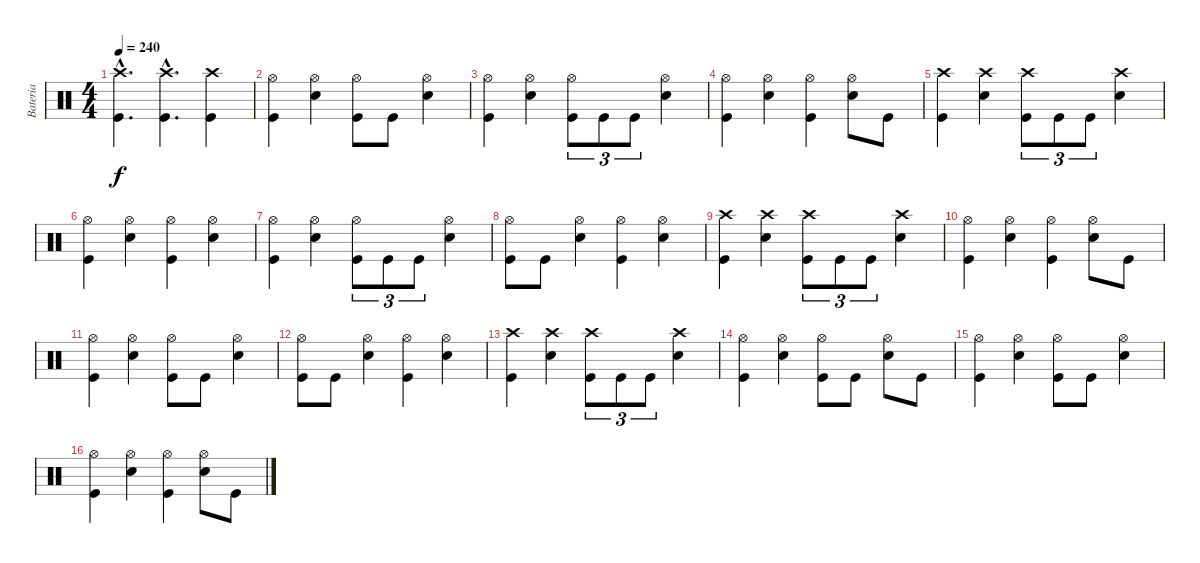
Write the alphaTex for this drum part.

\track ("Bateria" "Bateria") {instrument percussion}
\staff {score}
\articulation defaults
\ts (4 4)
\tempo 240
\clef neutral
\ks c
("Kick (hit)"{hac} "Crash high (hit)"{hac}).4{d dy f} ("Kick (hit)"{hac} "Crash high (hit)"{hac}).4{d} ("Kick (hit)" "Crash high (hit)").4 |
("Kick (hit)" "Hi-Hat (open)").4 ("Electric Snare (hit)" "Hi-Hat (open)").4 ("Kick (hit)" "Hi-Hat (open)").8 "Kick (hit)".8 ("Electric Snare (hit)" "Hi-Hat (open)").4 |
("Kick (hit)" "Hi-Hat (open)").4 ("Electric Snare (hit)" "Hi-Hat (open)").4 ("Kick (hit)" "Hi-Hat (open)").8{tu (3 2)} "Kick (hit)".8{tu (3 2)} "Kick (hit)".8{tu (3 2)} ("Electric Snare (hit)" "Hi-Hat (open)").4 |
("Kick (hit)" "Hi-Hat (open)").4 ("Electric Snare (hit)" "Hi-Hat (open)").4 ("Kick (hit)" "Hi-Hat (open)").4 ("Electric Snare (hit)" "Hi-Hat (open)").8 "Kick (hit)".8 |
("Kick (hit)" "Crash high (hit)").4 ("Electric Snare (hit)" "Crash high (hit)").4 ("Kick (hit)" "Crash high (hit)").8{tu (3 2)} "Kick (hit)".8{tu (3 2)} "Kick (hit)".8{tu (3 2)} ("Electric Snare (hit)" "Crash high (hit)").4 |
("Kick (hit)" "Hi-Hat (open)").4 ("Electric Snare (hit)" "Hi-Hat (open)").4 ("Kick (hit)" "Hi-Hat (open)").4 ("Electric Snare (hit)" "Hi-Hat (open)").4 |
("Kick (hit)" "Hi-Hat (open)").4 ("Electric Snare (hit)" "Hi-Hat (open)").4 ("Kick (hit)" "Hi-Hat (open)").8{tu (3 2)} "Kick (hit)".8{tu (3 2)} "Kick (hit)".8{tu (3 2)} ("Electric Snare (hit)" "Hi-Hat (open)").4 |
("Kick (hit)" "Hi-Hat (open)").8 "Kick (hit)".8 ("Electric Snare (hit)" "Hi-Hat (open)").4 ("Kick (hit)" "Hi-Hat (open)").4 ("Electric Snare (hit)" "Hi-Hat (open)").4 |
("Kick (hit)" "Crash high (hit)").4 ("Electric Snare (hit)" "Crash high (hit)").4 ("Kick (hit)" "Crash high (hit)").8{tu (3 2)} "Kick (hit)".8{tu (3 2)} "Kick (hit)".8{tu (3 2)} ("Electric Snare (hit)" "Crash high (hit)").4 |
("Kick (hit)" "Hi-Hat (open)").4 ("Electric Snare (hit)" "Hi-Hat (open)").4 ("Kick (hit)" "Hi-Hat (open)").4 ("Electric Snare (hit)" "Hi-Hat (open)").8 "Kick (hit)".8 |
("Kick (hit)" "Hi-Hat (open)").4 ("Electric Snare (hit)" "Hi-Hat (open)").4 ("Kick (hit)" "Hi-Hat (open)").8 "Kick (hit)".8 ("Electric Snare (hit)" "Hi-Hat (open)").4 |
("Kick (hit)" "Hi-Hat (open)").8 "Kick (hit)".8 ("Electric Snare (hit)" "Hi-Hat (open)").4 ("Kick (hit)" "Hi-Hat (open)").4 ("Electric Snare (hit)" "Hi-Hat (open)").4 |
("Kick (hit)" "Crash high (hit)").4 ("Electric Snare (hit)" "Crash high (hit)").4 ("Kick (hit)" "Crash high (hit)").8{tu (3 2)} "Kick (hit)".8{tu (3 2)} "Kick (hit)".8{tu (3 2)} ("Electric Snare (hit)" "Crash high (hit)").4 |
("Kick (hit)" "Hi-Hat (open)").4 ("Electric Snare (hit)" "Hi-Hat (open)").4 ("Kick (hit)" "Hi-Hat (open)").8 "Kick (hit)".8 ("Electric Snare (hit)" "Hi-Hat (open)").8 "Kick (hit)".8 |
("Kick (hit)" "Hi-Hat (open)").4 ("Electric Snare (hit)" "Hi-Hat (open)").4 ("Kick (hit)" "Hi-Hat (open)").8 "Kick (hit)".8 ("Electric Snare (hit)" "Hi-Hat (open)").4 |
("Kick (hit)" "Hi-Hat (open)").4 ("Electric Snare (hit)" "Hi-Hat (open)").4 ("Kick (hit)" "Hi-Hat (open)").4 ("Electric Snare (hit)" "Hi-Hat (open)").8 "Kick (hit)".8
